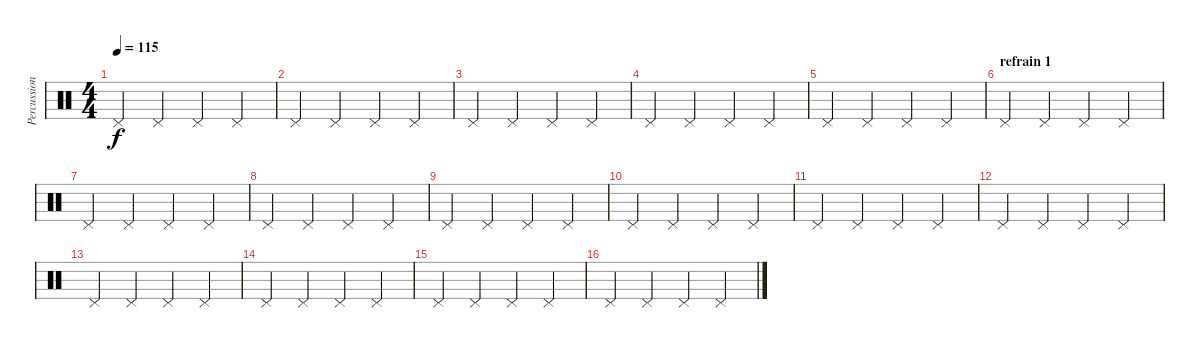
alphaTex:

\track ("Percussions" "Percussion") {instrument percussion}
\staff {score}
\articulation defaults
\ts (4 4)
\tempo 115
\clef neutral
\ks c "Pedal Hi-Hat (hit)".4{dy f} "Pedal Hi-Hat (hit)".4 "Pedal Hi-Hat (hit)".4 "Pedal Hi-Hat (hit)".4
|
"Pedal Hi-Hat (hit)".4 "Pedal Hi-Hat (hit)".4 "Pedal Hi-Hat (hit)".4 "Pedal Hi-Hat (hit)".4 |
"Pedal Hi-Hat (hit)".4 "Pedal Hi-Hat (hit)".4 "Pedal Hi-Hat (hit)".4 "Pedal Hi-Hat (hit)".4 |
"Pedal Hi-Hat (hit)".4 "Pedal Hi-Hat (hit)".4 "Pedal Hi-Hat (hit)".4 "Pedal Hi-Hat (hit)".4 |
"Pedal Hi-Hat (hit)".4 "Pedal Hi-Hat (hit)".4 "Pedal Hi-Hat (hit)".4 "Pedal Hi-Hat (hit)".4 |
\section ("" "refrain 1")
"Pedal Hi-Hat (hit)".4 "Pedal Hi-Hat (hit)".4 "Pedal Hi-Hat (hit)".4 "Pedal Hi-Hat (hit)".4 |
"Pedal Hi-Hat (hit)".4 "Pedal Hi-Hat (hit)".4 "Pedal Hi-Hat (hit)".4 "Pedal Hi-Hat (hit)".4 |
"Pedal Hi-Hat (hit)".4 "Pedal Hi-Hat (hit)".4 "Pedal Hi-Hat (hit)".4 "Pedal Hi-Hat (hit)".4 |
"Pedal Hi-Hat (hit)".4 "Pedal Hi-Hat (hit)".4 "Pedal Hi-Hat (hit)".4 "Pedal Hi-Hat (hit)".4 |
"Pedal Hi-Hat (hit)".4 "Pedal Hi-Hat (hit)".4 "Pedal Hi-Hat (hit)".4 "Pedal Hi-Hat (hit)".4 |
"Pedal Hi-Hat (hit)".4 "Pedal Hi-Hat (hit)".4 "Pedal Hi-Hat (hit)".4 "Pedal Hi-Hat (hit)".4 |
"Pedal Hi-Hat (hit)".4 "Pedal Hi-Hat (hit)".4 "Pedal Hi-Hat (hit)".4 "Pedal Hi-Hat (hit)".4 |
"Pedal Hi-Hat (hit)".4 "Pedal Hi-Hat (hit)".4 "Pedal Hi-Hat (hit)".4 "Pedal Hi-Hat (hit)".4 |
"Pedal Hi-Hat (hit)".4 "Pedal Hi-Hat (hit)".4 "Pedal Hi-Hat (hit)".4 "Pedal Hi-Hat (hit)".4 |
"Pedal Hi-Hat (hit)".4 "Pedal Hi-Hat (hit)".4 "Pedal Hi-Hat (hit)".4 "Pedal Hi-Hat (hit)".4 |
"Pedal Hi-Hat (hit)".4 "Pedal Hi-Hat (hit)".4 "Pedal Hi-Hat (hit)".4 "Pedal Hi-Hat (hit)".4
